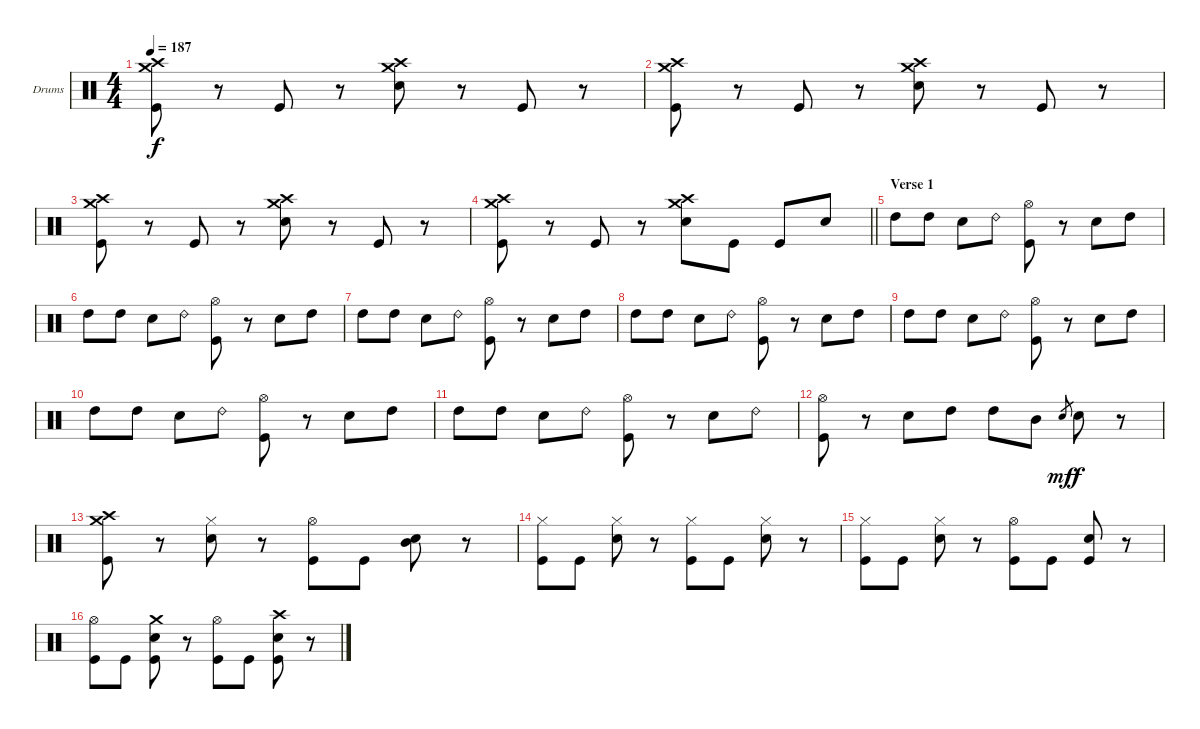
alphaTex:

\bracketExtendMode groupsimilarinstruments
\firstSystemTrackNameOrientation horizontal
\otherSystemsTrackNameOrientation horizontal
\track ("Rian Dawson" "Drums") {instrument percussion}
\staff {score}
\articulation defaults
\ts (4 4)
\tempo 187
\clef neutral
\ks c
("Crash medium (hit)" "Crash high (hit)" "Kick (hit)").8{dy f} r.8 "Kick (hit)".8 r.8 ("Crash medium (hit)" "Crash high (hit)" "Snare (hit) 2").8 r.8 "Kick (hit)".8 r.8 |
("Crash medium (hit)" "Crash high (hit)" "Kick (hit)").8 r.8 "Kick (hit)".8 r.8 ("Crash medium (hit)" "Crash high (hit)" "Snare (hit) 2").8 r.8 "Kick (hit)".8 r.8 |
("Crash medium (hit)" "Crash high (hit)" "Kick (hit)").8 r.8 "Kick (hit)".8 r.8 ("Crash medium (hit)" "Crash high (hit)" "Snare (hit) 2").8 r.8 "Kick (hit)".8 r.8 |
\barLineRight lightlight
("Crash medium (hit)" "Crash high (hit)" "Kick (hit)").8 r.8 "Kick (hit)".8 r.8 ("Crash medium (hit)" "Crash high (hit)" "Snare (hit) 2").8 "Kick (hit)".8 "Kick (hit)".8 "Snare (hit) 2".8 |
\section ("" "Verse 1")
"High Tom (hit)".8 "High Tom (hit)".8 "Snare (hit) 2".8 "Ride (bell) 2".8 ("Hi-Hat (open)" "Kick (hit)").8 r.8 "Snare (hit) 2".8 "High Tom (hit)".8 |
"High Tom (hit)".8 "High Tom (hit)".8 "Snare (hit) 2".8 "Ride (bell) 2".8 ("Hi-Hat (open)" "Kick (hit)").8 r.8 "Snare (hit) 2".8 "High Tom (hit)".8 |
"High Tom (hit)".8 "High Tom (hit)".8 "Snare (hit) 2".8 "Ride (bell) 2".8 ("Hi-Hat (open)" "Kick (hit)").8 r.8 "Snare (hit) 2".8 "High Tom (hit)".8 |
"High Tom (hit)".8 "High Tom (hit)".8 "Snare (hit) 2".8 "Ride (bell) 2".8 ("Hi-Hat (open)" "Kick (hit)").8 r.8 "Snare (hit) 2".8 "High Tom (hit)".8 |
"High Tom (hit)".8 "High Tom (hit)".8 "Snare (hit) 2".8 "Ride (bell) 2".8 ("Hi-Hat (open)" "Kick (hit)").8 r.8 "Snare (hit) 2".8 "High Tom (hit)".8 |
"High Tom (hit)".8 "High Tom (hit)".8 "Snare (hit) 2".8 "Ride (bell) 2".8 ("Hi-Hat (open)" "Kick (hit)").8 r.8 "Snare (hit) 2".8 "High Tom (hit)".8 |
"High Tom (hit)".8 "High Tom (hit)".8 "Snare (hit) 2".8 "Ride (bell) 2".8 ("Hi-Hat (open)" "Kick (hit)").8 r.8 "Snare (hit) 2".8 "Ride (bell) 2".8 |
("Hi-Hat (open)" "Kick (hit)").8 r.8 "Snare (hit) 2".8 "High Tom (hit)".8 "High Tom (hit)".8 "Mid Tom (hit)".8 "Snare (hit) 2".8{gr dy mf} "Snare (hit) 2".8{dy f} r.8 |
("Crash medium (hit)" "Crash high (hit)" "Kick (hit)").8 r.8 ("Hi-Hat (closed)" "Snare (hit) 2").8 r.8 ("Hi-Hat (open)" "Kick (hit)").8 "Kick (hit)".8 ("Snare (hit) 2" "Mid Tom (hit)").8 r.8 |
("Hi-Hat (closed)" "Kick (hit)").8 "Kick (hit)".8 ("Hi-Hat (closed)" "Snare (hit) 2").8 r.8 ("Hi-Hat (closed)" "Kick (hit)").8 "Kick (hit)".8 ("Hi-Hat (closed)" "Snare (hit) 2").8 r.8 |
("Hi-Hat (closed)" "Kick (hit)").8 "Kick (hit)".8 ("Hi-Hat (closed)" "Snare (hit) 2").8 r.8 ("Hi-Hat (open)" "Kick (hit)").8 "Kick (hit)".8 ("Snare (hit) 2" "Kick (hit)").8 r.8 |
("Hi-Hat (open)" "Kick (hit)").8 "Kick (hit)".8 ("Crash medium (hit)" "Snare (hit) 2" "Kick (hit)").8 r.8 ("Hi-Hat (open)" "Kick (hit)").8 "Kick (hit)".8 ("Crash high (hit)" "Snare (hit) 2" "Kick (hit)").8 r.8
